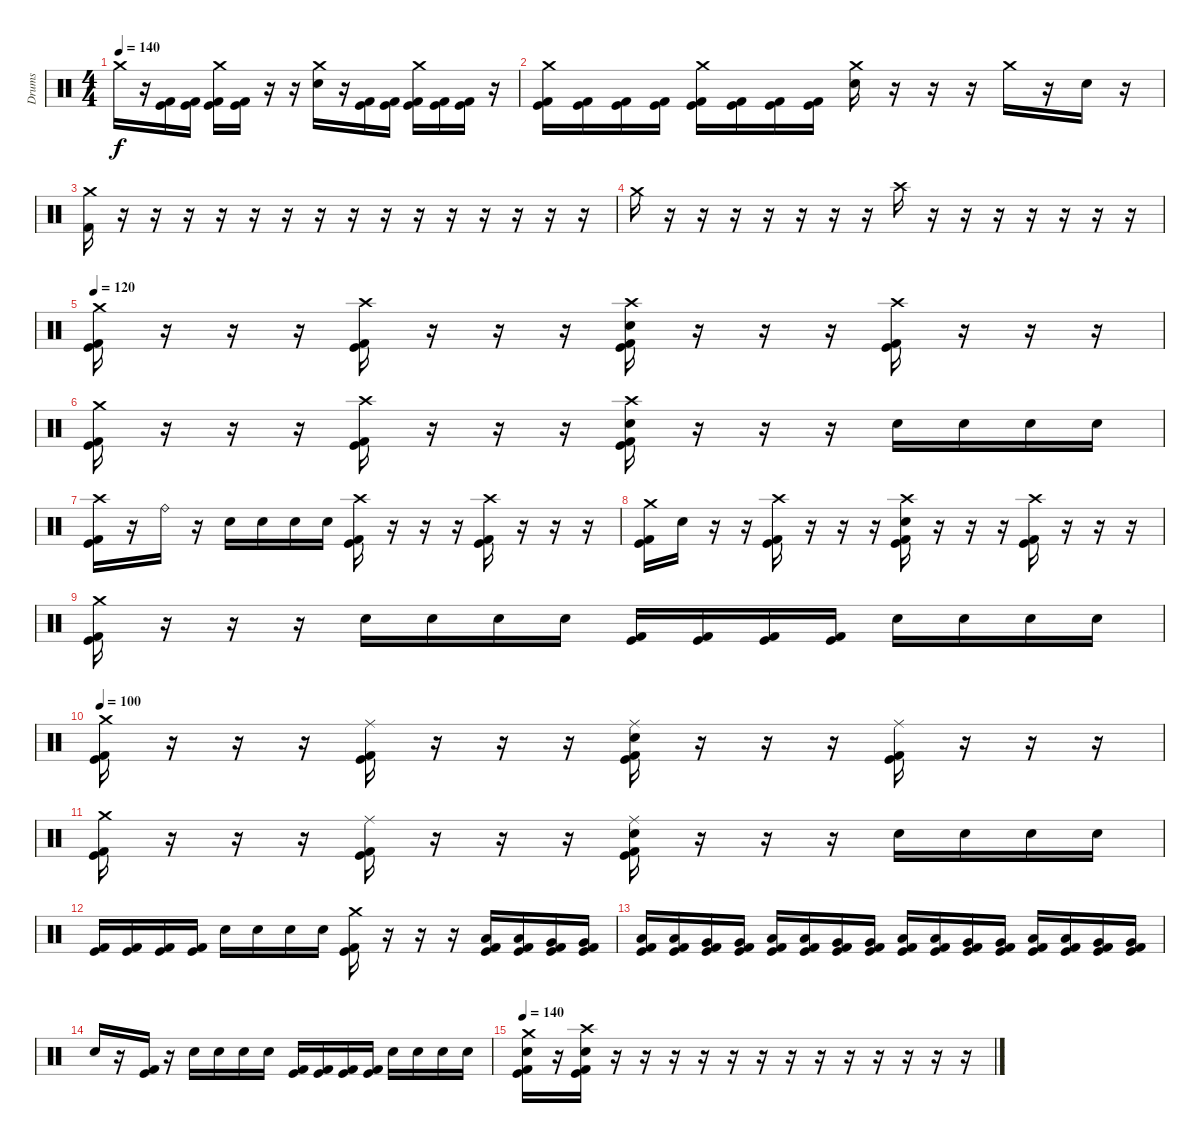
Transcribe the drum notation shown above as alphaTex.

\track ("Drums" "Drums") {instrument percussion}
\staff {score}
\articulation defaults
\ts (4 4)
\tempo 140
\clef neutral
\ks c "Crash medium (hit)".16{dy f}
r.16 ("Kick (hit)" "Kick (hit) 2").16 ("Kick (hit)" "Kick (hit) 2").16 ("Crash medium (hit)" "Kick (hit)" "Kick (hit) 2").16 ("Kick (hit)" "Kick (hit) 2").16 r.16 r.16 ("Crash medium (hit)" "Electric Snare (hit)").16 r.16 ("Kick (hit)" "Kick (hit) 2").16 ("Kick (hit)" "Kick (hit) 2").16 ("Crash medium (hit)" "Kick (hit)" "Kick (hit) 2").16 ("Kick (hit)" "Kick (hit) 2").16 ("Kick (hit)" "Kick (hit) 2").16 r.16 |
("Crash medium (hit)" "Kick (hit)" "Kick (hit) 2").16 ("Kick (hit)" "Kick (hit) 2").16 ("Kick (hit)" "Kick (hit) 2").16 ("Kick (hit)" "Kick (hit) 2").16 ("Crash medium (hit)" "Kick (hit)" "Kick (hit) 2").16 ("Kick (hit)" "Kick (hit) 2").16 ("Kick (hit)" "Kick (hit) 2").16 ("Kick (hit)" "Kick (hit) 2").16 ("Crash medium (hit)" "Electric Snare (hit)").16 r.16 r.16 r.16 "Crash medium (hit)".16 r.16 "Electric Snare (hit)".16 r.16 |
("Crash medium (hit)" "Kick (hit) 2").16 r.16 r.16 r.16 r.16 r.16 r.16 r.16 r.16 r.16 r.16 r.16 r.16 r.16 r.16 r.16 |
"Crash medium (hit)".16 r.16 r.16 r.16 r.16 r.16 r.16 r.16 "Crash high (hit)".16 r.16 r.16 r.16 r.16 r.16 r.16 r.16 |
\tempo 120
("Crash medium (hit)" "Kick (hit)" "Kick (hit) 2").16 r.16 r.16 r.16 ("Crash high (hit)" "Kick (hit)" "Kick (hit) 2").16 r.16 r.16 r.16 ("Crash high (hit)" "Electric Snare (hit)" "Kick (hit)" "Kick (hit) 2").16 r.16 r.16 r.16 ("Crash high (hit)" "Kick (hit)" "Kick (hit) 2").16 r.16 r.16 r.16 |
("Crash medium (hit)" "Kick (hit)" "Kick (hit) 2").16 r.16 r.16 r.16 ("Crash high (hit)" "Kick (hit)" "Kick (hit) 2").16 r.16 r.16 r.16 ("Crash high (hit)" "Electric Snare (hit)" "Kick (hit)" "Kick (hit) 2").16 r.16 r.16 r.16 "Electric Snare (hit)".16 "Electric Snare (hit)".16 "Electric Snare (hit)".16 "Electric Snare (hit)".16 |
("Crash high (hit)" "Kick (hit)" "Kick (hit) 2").16 r.16 "Ride (bell)".16 r.16 "Electric Snare (hit)".16 "Electric Snare (hit)".16 "Electric Snare (hit)".16 "Electric Snare (hit)".16 ("Crash high (hit)" "Kick (hit)" "Kick (hit) 2").16 r.16 r.16 r.16 ("Crash high (hit)" "Kick (hit)" "Kick (hit) 2").16 r.16 r.16 r.16 |
("Crash medium (hit)" "Kick (hit)" "Kick (hit) 2").16 "Snare (hit)".16 r.16 r.16 ("Crash high (hit)" "Kick (hit)" "Kick (hit) 2").16 r.16 r.16 r.16 ("Crash high (hit)" "Electric Snare (hit)" "Kick (hit)" "Kick (hit) 2").16 r.16 r.16 r.16 ("Crash high (hit)" "Kick (hit)" "Kick (hit) 2").16 r.16 r.16 r.16 |
("Crash medium (hit)" "Kick (hit)" "Kick (hit) 2").16 r.16 r.16 r.16 "Electric Snare (hit)".16 "Electric Snare (hit)".16 "Electric Snare (hit)".16 "Electric Snare (hit)".16 ("Kick (hit)" "Kick (hit) 2").16 ("Kick (hit)" "Kick (hit) 2").16 ("Kick (hit)" "Kick (hit) 2").16 ("Kick (hit)" "Kick (hit) 2").16 "Electric Snare (hit)".16 "Electric Snare (hit)".16 "Electric Snare (hit)".16 "Electric Snare (hit)".16 |
\tempo 100
("Crash medium (hit)" "Kick (hit)" "Kick (hit) 2").16 r.16 r.16 r.16 ("Ride (middle)" "Kick (hit)" "Kick (hit) 2").16 r.16 r.16 r.16 ("Ride (middle)" "Electric Snare (hit)" "Kick (hit)" "Kick (hit) 2").16 r.16 r.16 r.16 ("Ride (middle)" "Kick (hit)" "Kick (hit) 2").16 r.16 r.16 r.16 |
("Crash medium (hit)" "Kick (hit)" "Kick (hit) 2").16 r.16 r.16 r.16 ("Ride (middle)" "Kick (hit)" "Kick (hit) 2").16 r.16 r.16 r.16 ("Ride (middle)" "Electric Snare (hit)" "Kick (hit)" "Kick (hit) 2").16 r.16 r.16 r.16 "Electric Snare (hit)".16 "Electric Snare (hit)".16 "Electric Snare (hit)".16 "Electric Snare (hit)".16 |
("Kick (hit)" "Kick (hit) 2").16 ("Kick (hit)" "Kick (hit) 2").16 ("Kick (hit)" "Kick (hit) 2").16 ("Kick (hit)" "Kick (hit) 2").16 "Electric Snare (hit)".16 "Electric Snare (hit)".16 "Electric Snare (hit)".16 "Electric Snare (hit)".16 ("Crash medium (hit)" "Kick (hit)" "Kick (hit) 2").16 r.16 r.16 r.16 ("Kick (hit)" "Low Tom (hit)" "Kick (hit) 2").16 ("Kick (hit)" "Low Tom (hit)" "Kick (hit) 2").16 ("Kick (hit)" "Very Low Tom (hit)" "Kick (hit) 2").16 ("Kick (hit)" "Very Low Tom (hit)" "Kick (hit) 2").16 |
("Kick (hit)" "Low Tom (hit)" "Kick (hit) 2").16 ("Kick (hit)" "Low Tom (hit)" "Kick (hit) 2").16 ("Kick (hit)" "Very Low Tom (hit)" "Kick (hit) 2").16 ("Kick (hit)" "Very Low Tom (hit)" "Kick (hit) 2").16 ("Kick (hit)" "Low Tom (hit)" "Kick (hit) 2").16 ("Kick (hit)" "Low Tom (hit)" "Kick (hit) 2").16 ("Kick (hit)" "Very Low Tom (hit)" "Kick (hit) 2").16 ("Kick (hit)" "Very Low Tom (hit)" "Kick (hit) 2").16 ("Kick (hit)" "Low Tom (hit)" "Kick (hit) 2").16 ("Kick (hit)" "Low Tom (hit)" "Kick (hit) 2").16 ("Kick (hit)" "Very Low Tom (hit)" "Kick (hit) 2").16 ("Kick (hit)" "Very Low Tom (hit)" "Kick (hit) 2").16 ("Kick (hit)" "Low Tom (hit)" "Kick (hit) 2").16 ("Kick (hit)" "Low Tom (hit)" "Kick (hit) 2").16 ("Kick (hit)" "Very Low Tom (hit)" "Kick (hit) 2").16 ("Kick (hit)" "Very Low Tom (hit)" "Kick (hit) 2").16 |
"Electric Snare (hit)".16 r.16 ("Kick (hit)" "Kick (hit) 2").16 r.16 "Electric Snare (hit)".16 "Electric Snare (hit)".16 "Electric Snare (hit)".16 "Electric Snare (hit)".16 ("Kick (hit)" "Kick (hit) 2").16 ("Kick (hit)" "Kick (hit) 2").16 ("Kick (hit)" "Kick (hit) 2").16 ("Kick (hit)" "Kick (hit) 2").16 "Electric Snare (hit)".16 "Electric Snare (hit)".16 "Electric Snare (hit)".16 "Electric Snare (hit)".16 |
\tempo 140
("Crash medium (hit)" "Electric Snare (hit)" "Kick (hit)" "Kick (hit) 2").16 r.16 ("Crash high (hit)" "Electric Snare (hit)" "Kick (hit)" "Kick (hit) 2").16 r.16 r.16 r.16 r.16 r.16 r.16 r.16 r.16 r.16 r.16 r.16 r.16 r.16
